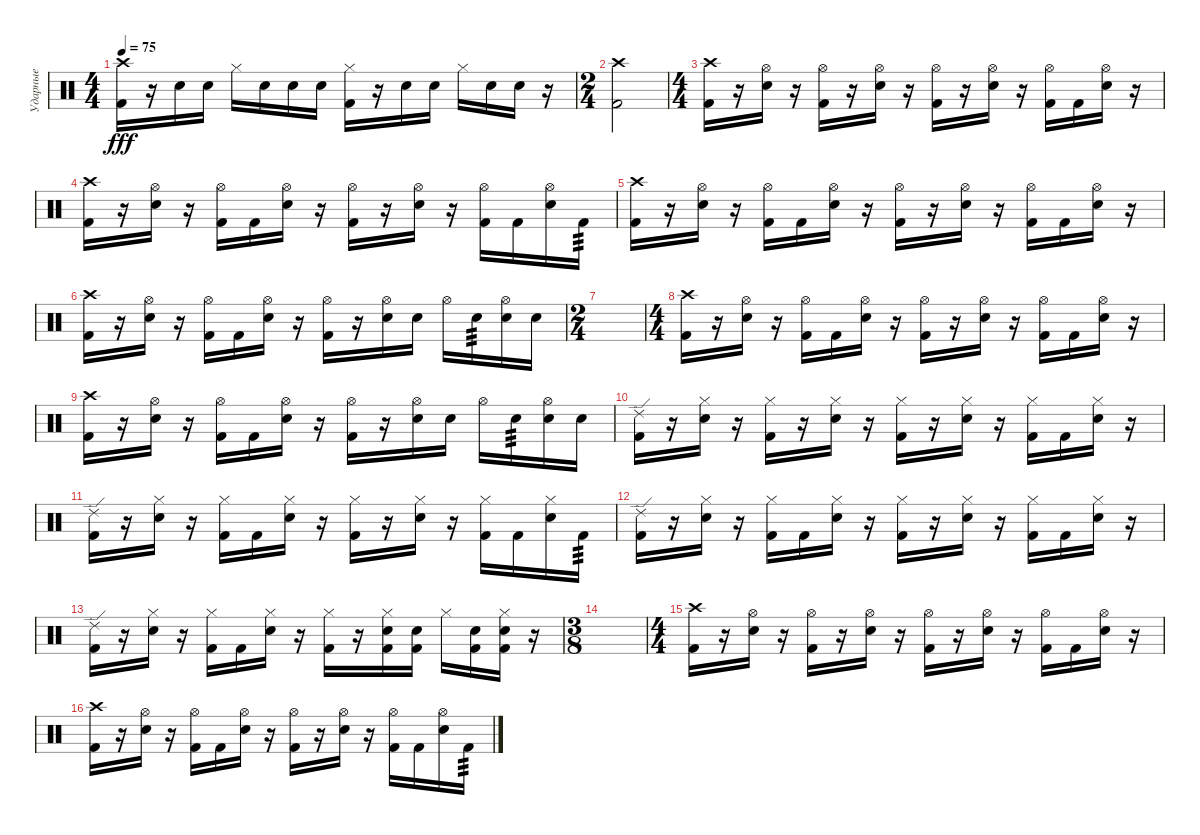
\track ("Ударные" "Ударные") {instrument percussion}
\staff {score}
\articulation defaults
\ts (4 4)
\tempo 75
\clef neutral
\ks c
("Crash high (hit)" "Kick (hit) 2").16{dy fff} r.16 "Snare (hit) 2".16 "Snare (hit) 2".16 "Hi-Hat (closed)".16 "Snare (hit) 2".16 "Snare (hit) 2".16 "Snare (hit) 2".16 ("Hi-Hat (closed)" "Kick (hit) 2").16 r.16 "Snare (hit) 2".16 "Snare (hit) 2".16 "Hi-Hat (closed)".16 "Snare (hit) 2".16 "Snare (hit) 2".16 r.16 |
\ts (2 4)
("Crash high (hit)" "Kick (hit) 2").2 |
\ts (4 4)
("Crash high (hit)" "Kick (hit) 2").16 r.16 ("Hi-Hat (open)" "Snare (hit) 2").16 r.16 ("Hi-Hat (open)" "Kick (hit) 2").16 r.16 ("Hi-Hat (open)" "Snare (hit) 2").16 r.16 ("Hi-Hat (open)" "Kick (hit) 2").16 r.16 ("Hi-Hat (open)" "Snare (hit) 2").16 r.16 ("Hi-Hat (open)" "Kick (hit) 2").16 "Kick (hit) 2".16 ("Hi-Hat (open)" "Snare (hit) 2").16 r.16 |
("Crash high (hit)" "Kick (hit) 2").16 r.16 ("Hi-Hat (open)" "Snare (hit) 2").16 r.16 ("Hi-Hat (open)" "Kick (hit) 2").16 "Kick (hit) 2".16 ("Hi-Hat (open)" "Snare (hit) 2").16 r.16 ("Hi-Hat (open)" "Kick (hit) 2").16 r.16 ("Hi-Hat (open)" "Snare (hit) 2").16 r.16 ("Hi-Hat (open)" "Kick (hit) 2").16 "Kick (hit) 2".16 ("Hi-Hat (open)" "Snare (hit) 2").16 "Kick (hit) 2".16{tp 3} |
("Crash high (hit)" "Kick (hit) 2").16 r.16 ("Hi-Hat (open)" "Snare (hit) 2").16 r.16 ("Hi-Hat (open)" "Kick (hit) 2").16 "Kick (hit) 2".16 ("Hi-Hat (open)" "Snare (hit) 2").16 r.16 ("Hi-Hat (open)" "Kick (hit) 2").16 r.16 ("Hi-Hat (open)" "Snare (hit) 2").16 r.16 ("Hi-Hat (open)" "Kick (hit) 2").16 "Kick (hit) 2".16 ("Hi-Hat (open)" "Snare (hit) 2").16 r.16 |
("Crash high (hit)" "Kick (hit) 2").16 r.16 ("Hi-Hat (open)" "Snare (hit) 2").16 r.16 ("Hi-Hat (open)" "Kick (hit) 2").16 "Kick (hit) 2".16 ("Hi-Hat (open)" "Snare (hit) 2").16 r.16 ("Hi-Hat (open)" "Kick (hit) 2").16 r.16 ("Hi-Hat (open)" "Snare (hit) 2").16 "Snare (hit) 2".16 "Hi-Hat (open)".16 "Snare (hit) 2".16{tp 3} ("Hi-Hat (open)" "Snare (hit) 2").16 "Snare (hit) 2".16 |
\ts (2 4)
|
\ts (4 4)
("Crash high (hit)" "Kick (hit) 2").16 r.16 ("Hi-Hat (open)" "Snare (hit) 2").16 r.16 ("Hi-Hat (open)" "Kick (hit) 2").16 "Kick (hit) 2".16 ("Hi-Hat (open)" "Snare (hit) 2").16 r.16 ("Hi-Hat (open)" "Kick (hit) 2").16 r.16 ("Hi-Hat (open)" "Snare (hit) 2").16 r.16 ("Hi-Hat (open)" "Kick (hit) 2").16 "Kick (hit) 2".16 ("Hi-Hat (open)" "Snare (hit) 2").16 r.16 |
("Crash high (hit)" "Kick (hit) 2").16 r.16 ("Hi-Hat (open)" "Snare (hit) 2").16 r.16 ("Hi-Hat (open)" "Kick (hit) 2").16 "Kick (hit) 2".16 ("Hi-Hat (open)" "Snare (hit) 2").16 r.16 ("Hi-Hat (open)" "Kick (hit) 2").16 r.16 ("Hi-Hat (open)" "Snare (hit) 2").16 "Snare (hit) 2".16 "Hi-Hat (open)".16 "Snare (hit) 2".16{tp 3} ("Hi-Hat (open)" "Snare (hit) 2").16 "Snare (hit) 2".16 |
("Ride (edge) 2" "Kick (hit) 2").16 r.16 ("Hi-Hat (closed)" "Snare (hit) 2").16 r.16 ("Hi-Hat (closed)" "Kick (hit) 2").16 r.16 ("Hi-Hat (closed)" "Snare (hit) 2").16 r.16 ("Hi-Hat (closed)" "Kick (hit) 2").16 r.16 ("Hi-Hat (closed)" "Snare (hit) 2").16 r.16 ("Hi-Hat (closed)" "Kick (hit) 2").16 "Kick (hit) 2".16 ("Hi-Hat (closed)" "Snare (hit) 2").16 r.16 |
("Ride (edge) 2" "Kick (hit) 2").16 r.16 ("Hi-Hat (closed)" "Snare (hit) 2").16 r.16 ("Hi-Hat (closed)" "Kick (hit) 2").16 "Kick (hit) 2".16 ("Hi-Hat (closed)" "Snare (hit) 2").16 r.16 ("Hi-Hat (closed)" "Kick (hit) 2").16 r.16 ("Hi-Hat (closed)" "Snare (hit) 2").16 r.16 ("Hi-Hat (closed)" "Kick (hit) 2").16 "Kick (hit) 2".16 ("Hi-Hat (closed)" "Snare (hit) 2").16 "Kick (hit) 2".16{tp 3} |
("Ride (edge) 2" "Kick (hit) 2").16 r.16 ("Hi-Hat (closed)" "Snare (hit) 2").16 r.16 ("Hi-Hat (closed)" "Kick (hit) 2").16 "Kick (hit) 2".16 ("Hi-Hat (closed)" "Snare (hit) 2").16 r.16 ("Hi-Hat (closed)" "Kick (hit) 2").16 r.16 ("Hi-Hat (closed)" "Snare (hit) 2").16 r.16 ("Hi-Hat (closed)" "Kick (hit) 2").16 "Kick (hit) 2".16 ("Hi-Hat (closed)" "Snare (hit) 2").16 r.16 |
("Ride (edge) 2" "Kick (hit) 2").16 r.16 ("Hi-Hat (closed)" "Snare (hit) 2").16 r.16 ("Hi-Hat (closed)" "Kick (hit) 2").16 "Kick (hit) 2".16 ("Hi-Hat (closed)" "Snare (hit) 2").16 r.16 ("Hi-Hat (closed)" "Kick (hit) 2").16 r.16 ("Hi-Hat (closed)" "Snare (hit) 2" "Kick (hit) 2").16 ("Snare (hit) 2" "Kick (hit) 2").16 "Hi-Hat (closed)".16 ("Snare (hit) 2" "Kick (hit) 2").16 ("Hi-Hat (closed)" "Snare (hit) 2" "Kick (hit) 2").16 r.16 |
\ts (3 8)
|
\ts (4 4)
("Crash high (hit)" "Kick (hit) 2").16 r.16 ("Hi-Hat (open)" "Snare (hit) 2").16 r.16 ("Hi-Hat (open)" "Kick (hit) 2").16 r.16 ("Hi-Hat (open)" "Snare (hit) 2").16 r.16 ("Hi-Hat (open)" "Kick (hit) 2").16 r.16 ("Hi-Hat (open)" "Snare (hit) 2").16 r.16 ("Hi-Hat (open)" "Kick (hit) 2").16 "Kick (hit) 2".16 ("Hi-Hat (open)" "Snare (hit) 2").16 r.16 |
("Crash high (hit)" "Kick (hit) 2").16 r.16 ("Hi-Hat (open)" "Snare (hit) 2").16 r.16 ("Hi-Hat (open)" "Kick (hit) 2").16 "Kick (hit) 2".16 ("Hi-Hat (open)" "Snare (hit) 2").16 r.16 ("Hi-Hat (open)" "Kick (hit) 2").16 r.16 ("Hi-Hat (open)" "Snare (hit) 2").16 r.16 ("Hi-Hat (open)" "Kick (hit) 2").16 "Kick (hit) 2".16 ("Hi-Hat (open)" "Snare (hit) 2").16 "Kick (hit) 2".16{tp 3}
